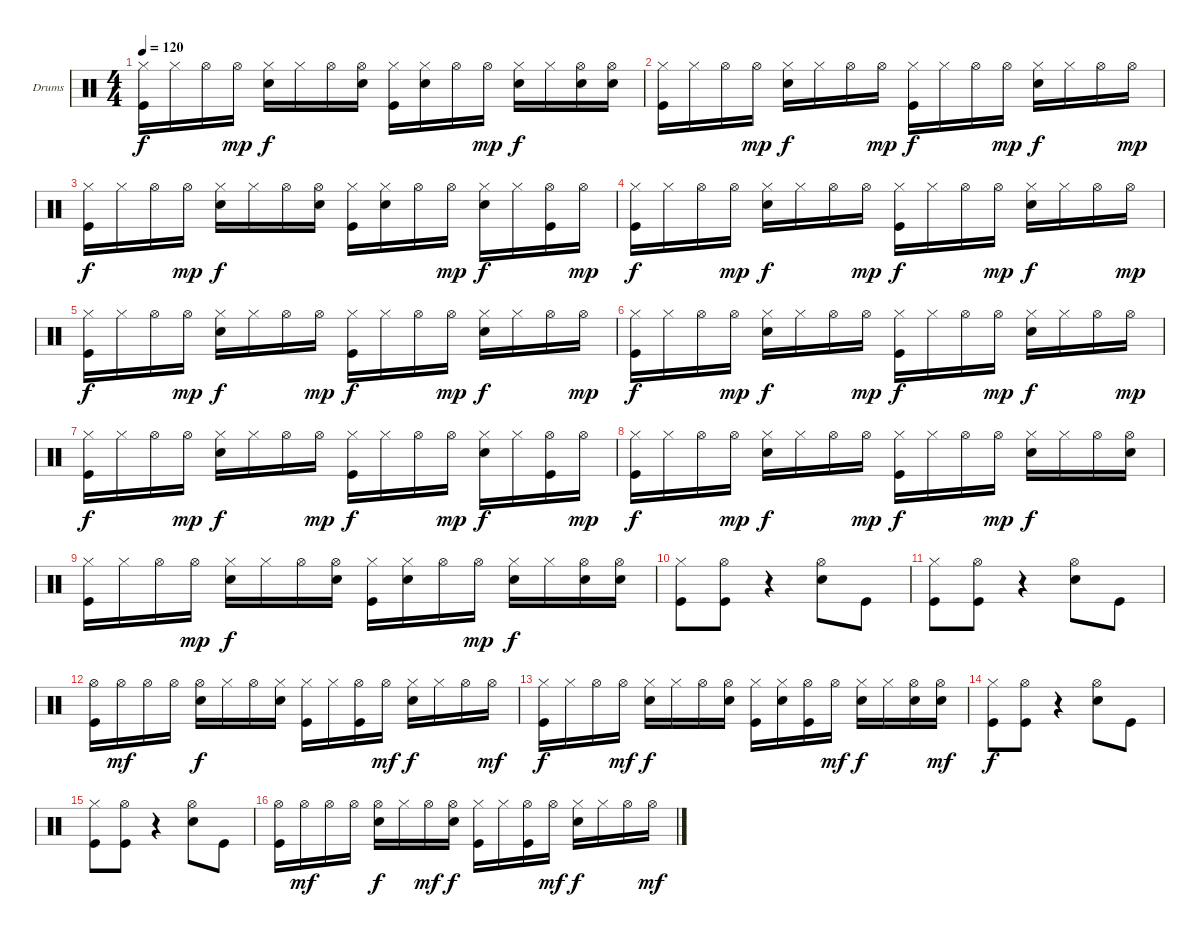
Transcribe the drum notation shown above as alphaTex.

\defaultSystemsLayout 4
\bracketExtendMode groupsimilarinstruments
\firstSystemTrackNameOrientation horizontal
\otherSystemsTrackNameOrientation horizontal
\track ("Г.Гурьянов-Ударные" "Drums") {instrument percussion}
\staff {score}
\articulation defaults
\ts (4 4)
\tempo 120
\clef neutral
\ks c
("Hi-Hat (closed)" "Kick (hit)").16{dy f} "Hi-Hat (closed)".16 "Hi-Hat (open)".16 "Hi-Hat (open)".16{dy mp} ("Hi-Hat (closed)" "Snare (hit) 2").16{dy f} "Hi-Hat (closed)".16 "Hi-Hat (open)".16 ("Snare (hit) 2" "Hi-Hat (open)").16 ("Kick (hit)" "Hi-Hat (closed)").16 ("Snare (hit) 2" "Hi-Hat (closed)").16 "Hi-Hat (open)".16 "Hi-Hat (open)".16{dy mp} ("Hi-Hat (closed)" "Snare (hit) 2").16{dy f} "Hi-Hat (closed)".16 ("Snare (hit) 2" "Hi-Hat (open)").16 ("Snare (hit) 2" "Hi-Hat (open)").16 |
("Hi-Hat (closed)" "Kick (hit)").16 "Hi-Hat (closed)".16 "Hi-Hat (open)".16 "Hi-Hat (open)".16{dy mp} ("Hi-Hat (closed)" "Snare (hit) 2").16{dy f} "Hi-Hat (closed)".16 "Hi-Hat (open)".16 "Hi-Hat (open)".16{dy mp} ("Kick (hit)" "Hi-Hat (closed)").16{dy f} "Hi-Hat (closed)".16 "Hi-Hat (open)".16 "Hi-Hat (open)".16{dy mp} ("Hi-Hat (closed)" "Snare (hit) 2").16{dy f} "Hi-Hat (closed)".16 "Hi-Hat (open)".16 "Hi-Hat (open)".16{dy mp} |
("Hi-Hat (closed)" "Kick (hit)").16{dy f} "Hi-Hat (closed)".16 "Hi-Hat (open)".16 "Hi-Hat (open)".16{dy mp} ("Hi-Hat (closed)" "Snare (hit) 2").16{dy f} "Hi-Hat (closed)".16 "Hi-Hat (open)".16 ("Snare (hit) 2" "Hi-Hat (open)").16 ("Kick (hit)" "Hi-Hat (closed)").16 ("Snare (hit) 2" "Hi-Hat (closed)").16 "Hi-Hat (open)".16 "Hi-Hat (open)".16{dy mp} ("Hi-Hat (closed)" "Snare (hit) 2").16{dy f} "Hi-Hat (closed)".16 ("Kick (hit)" "Hi-Hat (open)").16 "Hi-Hat (open)".16{dy mp} |
("Hi-Hat (closed)" "Kick (hit)").16{dy f} "Hi-Hat (closed)".16 "Hi-Hat (open)".16 "Hi-Hat (open)".16{dy mp} ("Hi-Hat (closed)" "Snare (hit) 2").16{dy f} "Hi-Hat (closed)".16 "Hi-Hat (open)".16 "Hi-Hat (open)".16{dy mp} ("Kick (hit)" "Hi-Hat (closed)").16{dy f} "Hi-Hat (closed)".16 "Hi-Hat (open)".16 "Hi-Hat (open)".16{dy mp} ("Hi-Hat (closed)" "Snare (hit) 2").16{dy f} "Hi-Hat (closed)".16 "Hi-Hat (open)".16 "Hi-Hat (open)".16{dy mp} |
("Hi-Hat (closed)" "Kick (hit)").16{dy f} "Hi-Hat (closed)".16 "Hi-Hat (open)".16 "Hi-Hat (open)".16{dy mp} ("Hi-Hat (closed)" "Snare (hit) 2").16{dy f} "Hi-Hat (closed)".16 "Hi-Hat (open)".16 "Hi-Hat (open)".16{dy mp} ("Kick (hit)" "Hi-Hat (closed)").16{dy f} "Hi-Hat (closed)".16 "Hi-Hat (open)".16 "Hi-Hat (open)".16{dy mp} ("Hi-Hat (closed)" "Snare (hit) 2").16{dy f} "Hi-Hat (closed)".16 "Hi-Hat (open)".16 "Hi-Hat (open)".16{dy mp} |
("Hi-Hat (closed)" "Kick (hit)").16{dy f} "Hi-Hat (closed)".16 "Hi-Hat (open)".16 "Hi-Hat (open)".16{dy mp} ("Hi-Hat (closed)" "Snare (hit) 2").16{dy f} "Hi-Hat (closed)".16 "Hi-Hat (open)".16 "Hi-Hat (open)".16{dy mp} ("Kick (hit)" "Hi-Hat (closed)").16{dy f} "Hi-Hat (closed)".16 "Hi-Hat (open)".16 "Hi-Hat (open)".16{dy mp} ("Hi-Hat (closed)" "Snare (hit) 2").16{dy f} "Hi-Hat (closed)".16 "Hi-Hat (open)".16 "Hi-Hat (open)".16{dy mp} |
("Hi-Hat (closed)" "Kick (hit)").16{dy f} "Hi-Hat (closed)".16 "Hi-Hat (open)".16 "Hi-Hat (open)".16{dy mp} ("Snare (hit) 2" "Hi-Hat (closed)").16{dy f} "Hi-Hat (closed)".16 "Hi-Hat (open)".16 "Hi-Hat (open)".16{dy mp} ("Kick (hit)" "Hi-Hat (closed)").16{dy f} "Hi-Hat (closed)".16 "Hi-Hat (open)".16 "Hi-Hat (open)".16{dy mp} ("Hi-Hat (closed)" "Snare (hit) 2").16{dy f} "Hi-Hat (closed)".16 ("Kick (hit)" "Hi-Hat (open)").16 "Hi-Hat (open)".16{dy mp} |
("Hi-Hat (closed)" "Kick (hit)").16{dy f} "Hi-Hat (closed)".16 "Hi-Hat (open)".16 "Hi-Hat (open)".16{dy mp} ("Hi-Hat (closed)" "Snare (hit) 2").16{dy f} "Hi-Hat (closed)".16 "Hi-Hat (open)".16 "Hi-Hat (open)".16{dy mp} ("Kick (hit)" "Hi-Hat (closed)").16{dy f} "Hi-Hat (closed)".16 "Hi-Hat (open)".16 "Hi-Hat (open)".16{dy mp} ("Hi-Hat (closed)" "Snare (hit) 2").16{dy f} "Hi-Hat (closed)".16 "Hi-Hat (open)".16 ("Snare (hit) 2" "Hi-Hat (open)").16 |
("Hi-Hat (closed)" "Kick (hit)").16 "Hi-Hat (closed)".16 "Hi-Hat (open)".16 "Hi-Hat (open)".16{dy mp} ("Hi-Hat (closed)" "Snare (hit) 2").16{dy f} "Hi-Hat (closed)".16 "Hi-Hat (open)".16 ("Snare (hit) 2" "Hi-Hat (open)").16 ("Kick (hit)" "Hi-Hat (closed)").16 ("Snare (hit) 2" "Hi-Hat (closed)").16 "Hi-Hat (open)".16 "Hi-Hat (open)".16{dy mp} ("Hi-Hat (closed)" "Snare (hit) 2").16{dy f} "Hi-Hat (closed)".16 ("Snare (hit) 2" "Hi-Hat (open)").16 ("Snare (hit) 2" "Hi-Hat (open)").16 |
("Hi-Hat (closed)" "Kick (hit)").8 ("Hi-Hat (open)" "Kick (hit)").8 r.4 ("Hi-Hat (open)" "Snare (hit) 2").8 "Kick (hit)".8 |
("Hi-Hat (closed)" "Kick (hit)").8 ("Hi-Hat (open)" "Kick (hit)").8 r.4 ("Snare (hit) 2" "Hi-Hat (open)").8 "Kick (hit)".8 |
("Kick (hit)" "Hi-Hat (open)").16 "Hi-Hat (open)".16{dy mf} "Hi-Hat (open)".16 "Hi-Hat (open)".16 ("Snare (hit) 2" "Hi-Hat (open)").16{dy f} "Hi-Hat (closed)".16 "Hi-Hat (open)".16 ("Snare (hit) 2" "Hi-Hat (closed)").16 ("Hi-Hat (closed)" "Kick (hit)").16 "Hi-Hat (closed)".16 ("Hi-Hat (open)" "Kick (hit)").16 "Hi-Hat (open)".16{dy mf} ("Snare (hit) 2" "Hi-Hat (closed)").16{dy f} "Hi-Hat (closed)".16 "Hi-Hat (open)".16 "Hi-Hat (open)".16{dy mf} |
("Hi-Hat (closed)" "Kick (hit)").16{dy f} "Hi-Hat (closed)".16 "Hi-Hat (open)".16 "Hi-Hat (open)".16{dy mf} ("Hi-Hat (closed)" "Snare (hit) 2").16{dy f} "Hi-Hat (closed)".16 "Hi-Hat (open)".16 ("Snare (hit) 2" "Hi-Hat (open)").16 ("Hi-Hat (closed)" "Kick (hit)").16 ("Snare (hit) 2" "Hi-Hat (closed)").16 ("Hi-Hat (open)" "Kick (hit)").16 "Hi-Hat (open)".16{dy mf} ("Snare (hit) 2" "Hi-Hat (closed)").16{dy f} "Hi-Hat (closed)".16 ("Hi-Hat (open)" "Snare (hit) 2").16 ("Hi-Hat (open)" "Snare (hit) 2").16{dy mf} |
("Hi-Hat (closed)" "Kick (hit)").8{dy f} ("Hi-Hat (open)" "Kick (hit)").8 r.4 ("Hi-Hat (open)" "Snare (hit) 2").8 "Kick (hit)".8 |
("Hi-Hat (closed)" "Kick (hit)").8 ("Hi-Hat (open)" "Kick (hit)").8 r.4 ("Snare (hit) 2" "Hi-Hat (open)").8 "Kick (hit)".8 |
("Kick (hit)" "Hi-Hat (open)").16 "Hi-Hat (open)".16{dy mf} "Hi-Hat (open)".16 "Hi-Hat (open)".16 ("Snare (hit) 2" "Hi-Hat (open)").16{dy f} "Hi-Hat (closed)".16 "Hi-Hat (open)".16{dy mf} ("Snare (hit) 2" "Hi-Hat (open)").16{dy f} ("Hi-Hat (closed)" "Kick (hit)").16 "Hi-Hat (closed)".16 ("Hi-Hat (open)" "Kick (hit)").16 "Hi-Hat (open)".16{dy mf} ("Snare (hit) 2" "Hi-Hat (closed)").16{dy f} "Hi-Hat (closed)".16 "Hi-Hat (open)".16 "Hi-Hat (open)".16{dy mf}
